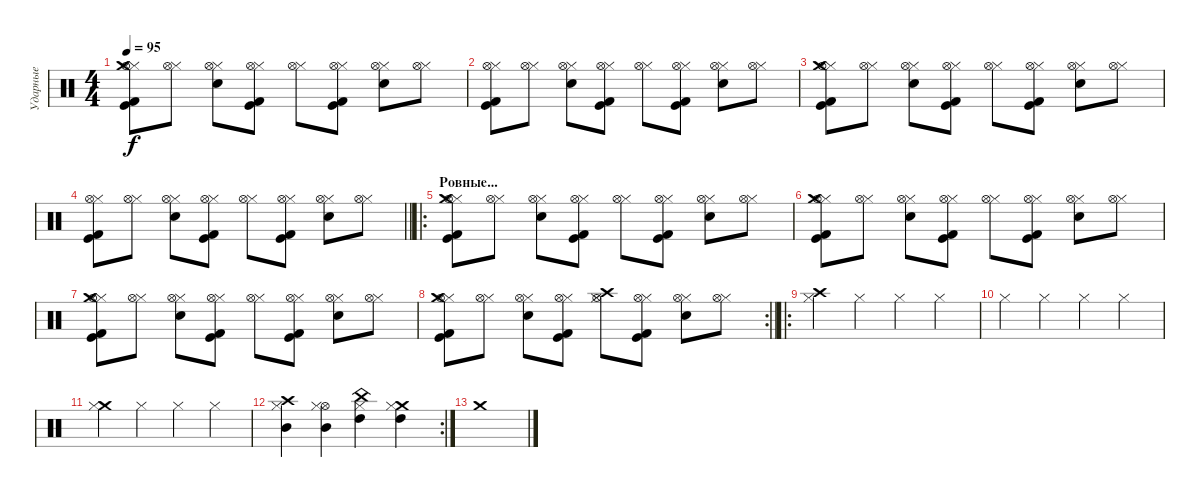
\track ("Ударные" "Ударные") {instrument percussion}
\staff {score}
\articulation defaults
\ts (4 4)
\tempo 95
\clef neutral
\ks c
("Kick (hit) 2" "Hi-Hat (closed)" "Kick (hit)" "Crash medium (hit)" "Hi-Hat (open)").8{dy f} ("Hi-Hat (closed)" "Hi-Hat (open)").8 ("Hi-Hat (closed)" "Snare (hit) 2" "Hi-Hat (open)").8 ("Kick (hit) 2" "Hi-Hat (closed)" "Kick (hit)" "Hi-Hat (open)").8 ("Hi-Hat (closed)" "Hi-Hat (open)").8 ("Kick (hit) 2" "Hi-Hat (closed)" "Kick (hit)" "Hi-Hat (open)").8 ("Hi-Hat (closed)" "Snare (hit) 2" "Hi-Hat (open)").8 ("Hi-Hat (closed)" "Hi-Hat (open)").8 |
("Kick (hit) 2" "Hi-Hat (closed)" "Kick (hit)" "Hi-Hat (open)").8 ("Hi-Hat (closed)" "Hi-Hat (open)").8 ("Hi-Hat (closed)" "Snare (hit) 2" "Hi-Hat (open)").8 ("Kick (hit) 2" "Hi-Hat (closed)" "Kick (hit)" "Hi-Hat (open)").8 ("Hi-Hat (closed)" "Hi-Hat (open)").8 ("Kick (hit) 2" "Hi-Hat (closed)" "Kick (hit)" "Hi-Hat (open)").8 ("Hi-Hat (closed)" "Snare (hit) 2" "Hi-Hat (open)").8 ("Hi-Hat (closed)" "Hi-Hat (open)").8 |
("Kick (hit) 2" "Hi-Hat (closed)" "Kick (hit)" "Crash medium (hit)" "Hi-Hat (open)").8 ("Hi-Hat (closed)" "Hi-Hat (open)").8 ("Hi-Hat (closed)" "Snare (hit) 2" "Hi-Hat (open)").8 ("Kick (hit) 2" "Hi-Hat (closed)" "Kick (hit)" "Hi-Hat (open)").8 ("Hi-Hat (closed)" "Hi-Hat (open)").8 ("Kick (hit) 2" "Hi-Hat (closed)" "Kick (hit)" "Hi-Hat (open)").8 ("Hi-Hat (closed)" "Snare (hit) 2" "Hi-Hat (open)").8 ("Hi-Hat (closed)" "Hi-Hat (open)").8 |
\barLineRight lightlight
("Kick (hit) 2" "Hi-Hat (closed)" "Kick (hit)" "Hi-Hat (open)").8 ("Hi-Hat (closed)" "Hi-Hat (open)").8 ("Hi-Hat (closed)" "Snare (hit) 2" "Hi-Hat (open)").8 ("Kick (hit) 2" "Hi-Hat (closed)" "Kick (hit)" "Hi-Hat (open)").8 ("Hi-Hat (closed)" "Hi-Hat (open)").8 ("Kick (hit) 2" "Hi-Hat (closed)" "Kick (hit)" "Hi-Hat (open)").8 ("Hi-Hat (closed)" "Snare (hit) 2" "Hi-Hat (open)").8 ("Hi-Hat (closed)" "Hi-Hat (open)").8 |
\ro
\section ("" "Ровные...")
("Kick (hit) 2" "Hi-Hat (closed)" "Kick (hit)" "Crash medium (hit)" "Hi-Hat (open)").8 ("Hi-Hat (closed)" "Hi-Hat (open)").8 ("Hi-Hat (closed)" "Snare (hit) 2" "Hi-Hat (open)").8 ("Kick (hit) 2" "Hi-Hat (closed)" "Kick (hit)" "Hi-Hat (open)").8 ("Hi-Hat (closed)" "Hi-Hat (open)").8 ("Kick (hit) 2" "Hi-Hat (closed)" "Kick (hit)" "Hi-Hat (open)").8 ("Hi-Hat (closed)" "Snare (hit) 2" "Hi-Hat (open)").8 ("Hi-Hat (closed)" "Hi-Hat (open)").8 |
("Kick (hit) 2" "Hi-Hat (closed)" "Kick (hit)" "Crash medium (hit)" "Hi-Hat (open)").8 ("Hi-Hat (closed)" "Hi-Hat (open)").8 ("Hi-Hat (closed)" "Snare (hit) 2" "Hi-Hat (open)").8 ("Kick (hit) 2" "Hi-Hat (closed)" "Kick (hit)" "Hi-Hat (open)").8 ("Hi-Hat (closed)" "Hi-Hat (open)").8 ("Kick (hit) 2" "Hi-Hat (closed)" "Kick (hit)" "Hi-Hat (open)").8 ("Hi-Hat (closed)" "Snare (hit) 2" "Hi-Hat (open)").8 ("Hi-Hat (closed)" "Hi-Hat (open)").8 |
("Kick (hit) 2" "Hi-Hat (closed)" "Kick (hit)" "Crash medium (hit)" "Hi-Hat (open)").8 ("Hi-Hat (closed)" "Hi-Hat (open)").8 ("Hi-Hat (closed)" "Snare (hit) 2" "Hi-Hat (open)").8 ("Kick (hit) 2" "Hi-Hat (closed)" "Kick (hit)" "Hi-Hat (open)").8 ("Hi-Hat (closed)" "Hi-Hat (open)").8 ("Kick (hit) 2" "Hi-Hat (closed)" "Kick (hit)" "Hi-Hat (open)").8 ("Hi-Hat (closed)" "Snare (hit) 2" "Hi-Hat (open)").8 ("Hi-Hat (closed)" "Hi-Hat (open)").8 |
\rc 2
\barLineRight lightlight
("Kick (hit) 2" "Hi-Hat (closed)" "Kick (hit)" "Crash medium (hit)" "Hi-Hat (open)").8 ("Hi-Hat (closed)" "Hi-Hat (open)").8 ("Hi-Hat (closed)" "Snare (hit) 2" "Hi-Hat (open)").8 ("Kick (hit) 2" "Hi-Hat (closed)" "Kick (hit)" "Hi-Hat (open)").8 ("Hi-Hat (closed)" "Crash high (hit)" "Hi-Hat (open)").8 ("Kick (hit) 2" "Hi-Hat (closed)" "Kick (hit)" "Hi-Hat (open)").8 ("Hi-Hat (closed)" "Snare (hit) 2" "Hi-Hat (open)").8 ("Hi-Hat (closed)" "Hi-Hat (open)").8 |
\ro
("Crash high (hit)" "Hi-Hat (closed)").4 "Hi-Hat (closed)".4 "Hi-Hat (closed)".4 "Hi-Hat (closed)".4 |
"Hi-Hat (closed)".4 "Hi-Hat (closed)".4 "Hi-Hat (closed)".4 "Hi-Hat (closed)".4 |
("Crash medium (hit)" "Hi-Hat (closed)").4 "Hi-Hat (closed)".4 "Hi-Hat (closed)".4 "Hi-Hat (closed)".4 |
\rc 2
("Crash high (hit)" "Hi-Hat (closed)" "Mid Tom (hit)").4 ("Hi-Hat (open)" "Hi-Hat (closed)" "Mid Tom (hit)").4 ("China (hit)" "Hi-Hat (closed)" "High Tom (hit)").4 ("Crash medium (hit)" "Hi-Hat (closed)" "High Tom (hit)").4 |
"Crash medium (hit)".1
